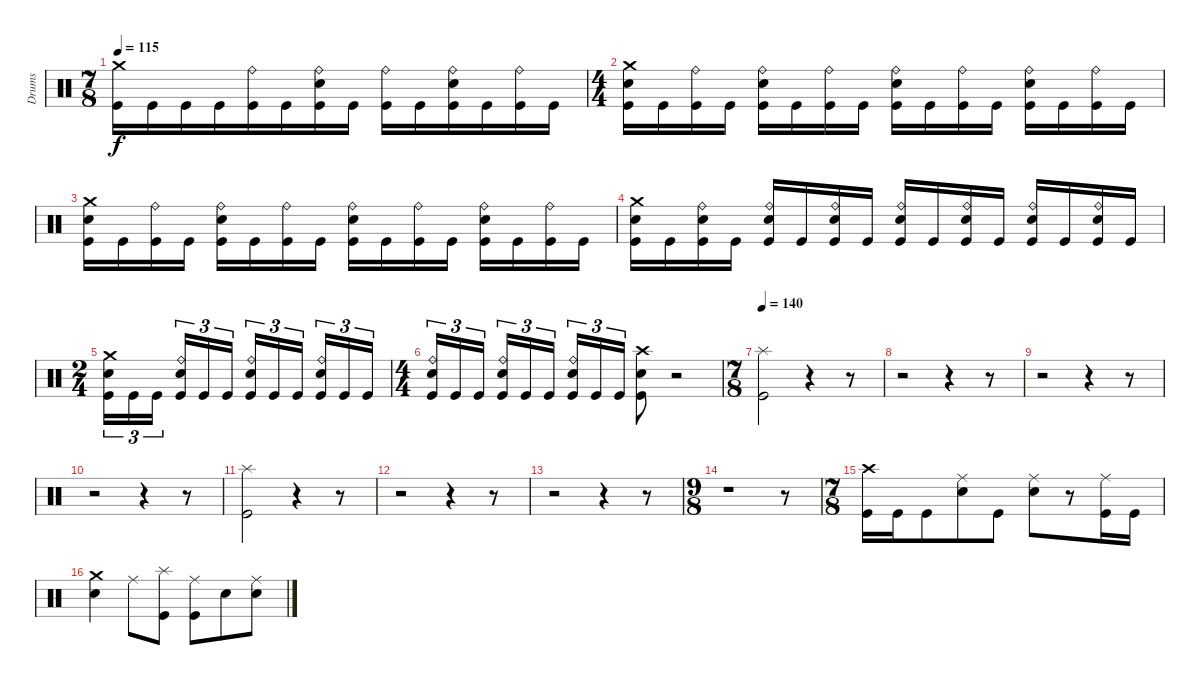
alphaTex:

\track ("Drums" "Drums") {instrument percussion}
\staff {score}
\articulation defaults
\ts (7 8)
\tempo 115
\clef neutral
\ks c
("Crash medium (hit)" "Kick (hit)").16{dy f} "Kick (hit)".16 "Kick (hit)".16 "Kick (hit)".16 ("Ride (bell)" "Kick (hit)").16 "Kick (hit)".16 ("Ride (bell)" "Electric Snare (hit)" "Kick (hit)").16 "Kick (hit)".16 ("Ride (bell)" "Kick (hit)").16 "Kick (hit)".16 ("Ride (bell)" "Electric Snare (hit)" "Kick (hit)").16 "Kick (hit)".16 ("Ride (bell)" "Kick (hit)").16 "Kick (hit)".16 |
\ts (4 4)
("Crash medium (hit)" "Electric Snare (hit)" "Kick (hit)").16 "Kick (hit)".16 ("Ride (bell)" "Kick (hit)").16 "Kick (hit)".16 ("Ride (bell)" "Electric Snare (hit)" "Kick (hit)").16 "Kick (hit)".16 ("Ride (bell)" "Kick (hit)").16 "Kick (hit)".16 ("Ride (bell)" "Electric Snare (hit)" "Kick (hit)").16 "Kick (hit)".16 ("Ride (bell)" "Kick (hit)").16 "Kick (hit)".16 ("Ride (bell)" "Electric Snare (hit)" "Kick (hit)").16 "Kick (hit)".16 ("Ride (bell)" "Kick (hit)").16 "Kick (hit)".16 |
("Crash medium (hit)" "Electric Snare (hit)" "Kick (hit)").16 "Kick (hit)".16 ("Ride (bell)" "Kick (hit)").16 "Kick (hit)".16 ("Ride (bell)" "Electric Snare (hit)" "Kick (hit)").16 "Kick (hit)".16 ("Ride (bell)" "Kick (hit)").16 "Kick (hit)".16 ("Ride (bell)" "Electric Snare (hit)" "Kick (hit)").16 "Kick (hit)".16 ("Ride (bell)" "Kick (hit)").16 "Kick (hit)".16 ("Ride (bell)" "Electric Snare (hit)" "Kick (hit)").16 "Kick (hit)".16 ("Ride (bell)" "Kick (hit)").16 "Kick (hit)".16 |
("Crash medium (hit)" "Electric Snare (hit)" "Kick (hit)").16 "Kick (hit)".16 ("Ride (bell)" "Electric Snare (hit)" "Kick (hit)").16 "Kick (hit)".16 ("Ride (bell)" "Electric Snare (hit)" "Kick (hit)").16 "Kick (hit)".16 ("Ride (bell)" "Electric Snare (hit)" "Kick (hit)").16 "Kick (hit)".16 ("Ride (bell)" "Electric Snare (hit)" "Kick (hit)").16 "Kick (hit)".16 ("Ride (bell)" "Electric Snare (hit)" "Kick (hit)").16 "Kick (hit)".16 ("Ride (bell)" "Electric Snare (hit)" "Kick (hit)").16 "Kick (hit)".16 ("Ride (bell)" "Electric Snare (hit)" "Kick (hit)").16 "Kick (hit)".16 |
\ts (2 4)
("Crash medium (hit)" "Electric Snare (hit)" "Kick (hit)").16{tu (3 2)} "Kick (hit)".16{tu (3 2)} "Kick (hit)".16{tu (3 2)} ("Ride (bell)" "Electric Snare (hit)" "Kick (hit)").16{tu (3 2)} "Kick (hit)".16{tu (3 2)} "Kick (hit)".16{tu (3 2)} ("Ride (bell)" "Electric Snare (hit)" "Kick (hit)").16{tu (3 2)} "Kick (hit)".16{tu (3 2)} "Kick (hit)".16{tu (3 2)} ("Ride (bell)" "Electric Snare (hit)" "Kick (hit)").16{tu (3 2)} "Kick (hit)".16{tu (3 2)} "Kick (hit)".16{tu (3 2)} |
\ts (4 4)
("Ride (bell)" "Electric Snare (hit)" "Kick (hit)").16{tu (3 2)} "Kick (hit)".16{tu (3 2)} "Kick (hit)".16{tu (3 2)} ("Ride (bell)" "Electric Snare (hit)" "Kick (hit)").16{tu (3 2)} "Kick (hit)".16{tu (3 2)} "Kick (hit)".16{tu (3 2)} ("Ride (bell)" "Electric Snare (hit)" "Kick (hit)").16{tu (3 2)} "Kick (hit)".16{tu (3 2)} "Kick (hit)".16{tu (3 2)} ("Crash high (hit)" "Electric Snare (hit)" "Kick (hit)").8 r.2 |
\ts (7 8)
\tempo 140
("Splash (hit)" "Kick (hit)").2 r.4 r.8 |
r.2 r.4 r.8 |
r.2 r.4 r.8 |
r.2 r.4 r.8 |
("Splash (hit)" "Kick (hit)").2 r.4 r.8 |
r.2 r.4 r.8 |
r.2 r.4 r.8 |
\ts (9 8)
r.1 r.8 |
\ts (7 8)
("Crash high (hit)" "Kick (hit)").16 "Kick (hit)".16 "Kick (hit)".8 ("Ride (middle)" "Electric Snare (hit)").8 "Kick (hit)".8 ("Ride (middle)" "Electric Snare (hit)").8 r.8 ("Ride (middle)" "Kick (hit)").16 "Kick (hit)".16 |
("Crash medium (hit)" "Electric Snare (hit)").4 "Ride (middle)".8 ("Splash (hit)" "Kick (hit)").8 ("Ride (middle)" "Kick (hit)").8 "Electric Snare (hit)".8 ("Ride (middle)" "Electric Snare (hit)").8
